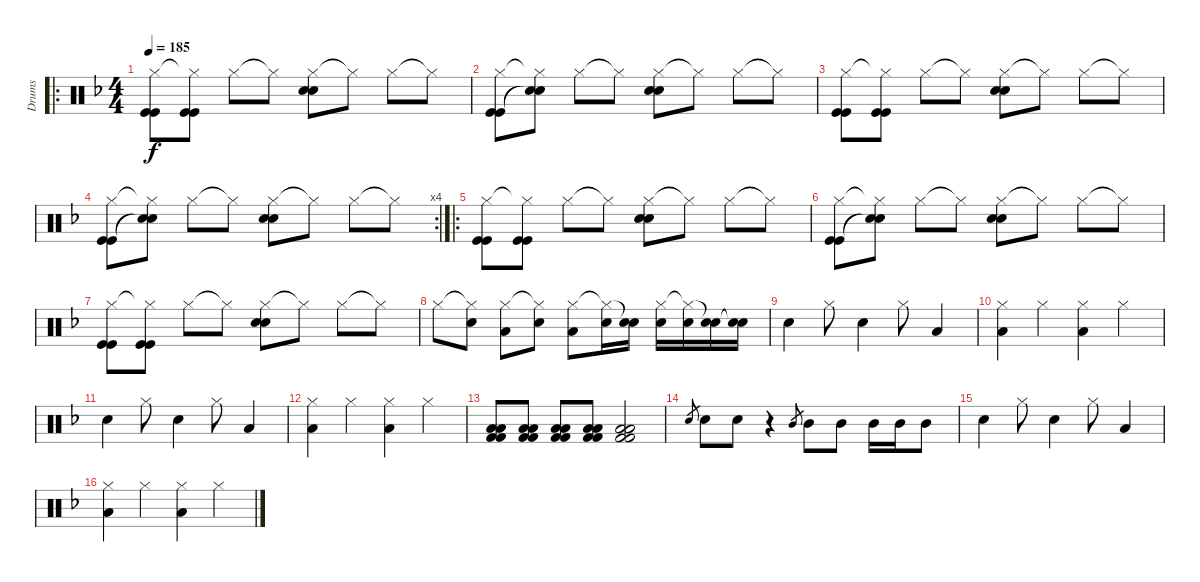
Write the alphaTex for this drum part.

\track ("Drums" "Drums") {instrument percussion}
\staff {score}
\articulation defaults
\ro
\ts (4 4)
\tempo 185
\clef neutral
\ks f
("Hi-Hat (closed)" "Kick (hit)" "Kick (hit)").8{dy f} ("Hi-Hat (closed)"{t} "Kick (hit)" "Kick (hit)").8 "Hi-Hat (closed)".8 "Hi-Hat (closed)"{t}.8 ("Hi-Hat (closed)" "Snare (hit) 2" "Snare (hit) 2").8 "Hi-Hat (closed)"{t}.8 "Hi-Hat (closed)".8 "Hi-Hat (closed)"{t}.8 |
("Hi-Hat (closed)" "Kick (hit)" "Kick (hit)").8 ("Hi-Hat (closed)"{t} "Snare (hit)"{t} "Snare (hit)"{t}).8 "Hi-Hat (closed)".8 "Hi-Hat (closed)"{t}.8 ("Hi-Hat (closed)" "Snare (hit) 2" "Snare (hit) 2").8 "Hi-Hat (closed)"{t}.8 "Hi-Hat (closed)".8 "Hi-Hat (closed)"{t}.8 |
("Hi-Hat (closed)" "Kick (hit)" "Kick (hit)").8 ("Hi-Hat (closed)"{t} "Kick (hit)" "Kick (hit)").8 "Hi-Hat (closed)".8 "Hi-Hat (closed)"{t}.8 ("Hi-Hat (closed)" "Snare (hit) 2" "Snare (hit) 2").8 "Hi-Hat (closed)"{t}.8 "Hi-Hat (closed)".8 "Hi-Hat (closed)"{t}.8 |
\rc 4
("Hi-Hat (closed)" "Kick (hit)" "Kick (hit)").8 ("Hi-Hat (closed)"{t} "Snare (hit)"{t} "Snare (hit)"{t}).8 "Hi-Hat (closed)".8 "Hi-Hat (closed)"{t}.8 ("Hi-Hat (closed)" "Snare (hit) 2" "Snare (hit) 2").8 "Hi-Hat (closed)"{t}.8 "Hi-Hat (closed)".8 "Hi-Hat (closed)"{t}.8 |
\ro
("Hi-Hat (closed)" "Kick (hit)" "Kick (hit)").8 ("Hi-Hat (closed)"{t} "Kick (hit)" "Kick (hit)").8 "Hi-Hat (closed)".8 "Hi-Hat (closed)"{t}.8 ("Hi-Hat (closed)" "Snare (hit) 2" "Snare (hit) 2").8 "Hi-Hat (closed)"{t}.8 "Hi-Hat (closed)".8 "Hi-Hat (closed)"{t}.8 |
("Hi-Hat (closed)" "Kick (hit)" "Kick (hit)").8 ("Hi-Hat (closed)"{t} "Snare (hit)"{t} "Snare (hit)"{t}).8 "Hi-Hat (closed)".8 "Hi-Hat (closed)"{t}.8 ("Hi-Hat (closed)" "Snare (hit) 2" "Snare (hit) 2").8 "Hi-Hat (closed)"{t}.8 "Hi-Hat (closed)".8 "Hi-Hat (closed)"{t}.8 |
("Hi-Hat (closed)" "Kick (hit)" "Kick (hit)").8 ("Hi-Hat (closed)"{t} "Kick (hit)" "Kick (hit)").8 "Hi-Hat (closed)".8 "Hi-Hat (closed)"{t}.8 ("Hi-Hat (closed)" "Snare (hit) 2" "Snare (hit) 2").8 "Hi-Hat (closed)"{t}.8 "Hi-Hat (closed)".8 "Hi-Hat (closed)"{t}.8 |
"Hi-Hat (closed)".8 ("Hi-Hat (closed)"{t} "Snare (hit) 2").8 ("Hi-Hat (closed)" "Low Floor Tom (hit)").8 ("Hi-Hat (closed)"{t} "Snare (hit) 2").8 ("Hi-Hat (closed)" "Low Floor Tom (hit)").8 ("Hi-Hat (closed)"{t} "Snare (hit) 2").16 ("Snare (hit)"{t} "Snare (hit) 2").16 ("Hi-Hat (closed)" "Snare (hit) 2").16 ("Hi-Hat (closed)"{t} "Snare (hit) 2").16 ("Snare (hit)"{t} "Snare (hit) 2").16 ("Snare (hit)"{t} "Snare (hit) 2"{t}).16 |
"Snare (hit) 2".4 "Hi-Hat (closed)".8 "Snare (hit) 2".4 "Hi-Hat (closed)".8 "Low Floor Tom (hit)".4 |
("Hi-Hat (closed)" "Low Floor Tom (hit)").4 "Hi-Hat (closed)".4 ("Hi-Hat (closed)" "Low Floor Tom (hit)").4 "Hi-Hat (closed)".4 |
"Snare (hit) 2".4 "Hi-Hat (closed)".8 "Snare (hit) 2".4 "Hi-Hat (closed)".8 "Low Floor Tom (hit)".4 |
("Hi-Hat (closed)" "Low Floor Tom (hit)").4 "Hi-Hat (closed)".4 ("Hi-Hat (closed)" "Low Floor Tom (hit)").4 "Hi-Hat (closed)".4 |
("Low Floor Tom (hit)" "Low Floor Tom (hit)" "Kick (hit) 2" "Kick (hit) 2").8 ("Low Floor Tom (hit)" "Low Floor Tom (hit)" "Kick (hit) 2" "Kick (hit) 2").8 ("Low Floor Tom (hit)" "Low Floor Tom (hit)" "Kick (hit) 2" "Kick (hit) 2").8 ("Low Floor Tom (hit)" "Low Floor Tom (hit)" "Kick (hit) 2" "Kick (hit) 2").8 ("Low Floor Tom (hit)" "Low Floor Tom (hit)" "Kick (hit) 2" "Kick (hit) 2").2 |
"Electric Snare (hit)".8{gr} "Electric Snare (hit)".8 "Electric Snare (hit)".8 r.4 "Mid Tom (hit)".8{gr} "Mid Tom (hit)".8 "Mid Tom (hit)".8 "Mid Tom (hit)".16 "Mid Tom (hit)".16 "Mid Tom (hit)".8 |
"Snare (hit) 2".4 "Hi-Hat (closed)".8 "Snare (hit) 2".4 "Hi-Hat (closed)".8 "Low Floor Tom (hit)".4 |
("Hi-Hat (closed)" "Low Floor Tom (hit)").4 "Hi-Hat (closed)".4 ("Hi-Hat (closed)" "Low Floor Tom (hit)").4 "Hi-Hat (closed)".4
